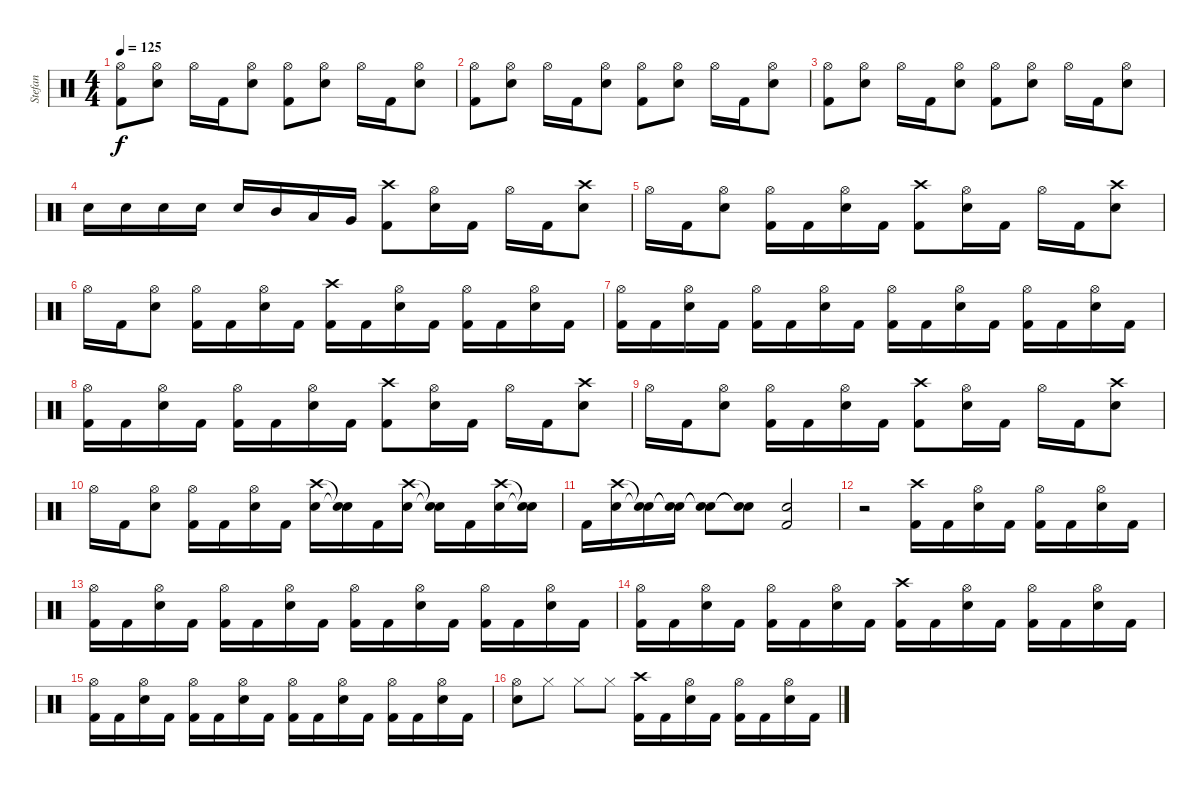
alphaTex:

\track ("Stefan" "Stefan") {instrument percussion}
\staff {score}
\articulation defaults
\ts (4 4)
\tempo 125
\clef neutral
\ks c
("Hi-Hat (open)" "Kick (hit) 2").8{dy f} ("Hi-Hat (open)" "Electric Snare (hit)").8 "Hi-Hat (open)".16 "Kick (hit) 2".16 ("Hi-Hat (open)" "Electric Snare (hit)").8 ("Hi-Hat (open)" "Kick (hit) 2").8 ("Hi-Hat (open)" "Electric Snare (hit)").8 "Hi-Hat (open)".16 "Kick (hit) 2".16 ("Hi-Hat (open)" "Electric Snare (hit)").8 |
("Hi-Hat (open)" "Kick (hit) 2").8 ("Hi-Hat (open)" "Electric Snare (hit)").8 "Hi-Hat (open)".16 "Kick (hit) 2".16 ("Hi-Hat (open)" "Electric Snare (hit)").8 ("Hi-Hat (open)" "Kick (hit) 2").8 ("Hi-Hat (open)" "Electric Snare (hit)").8 "Hi-Hat (open)".16 "Kick (hit) 2".16 ("Hi-Hat (open)" "Electric Snare (hit)").8 |
("Hi-Hat (open)" "Kick (hit) 2").8 ("Hi-Hat (open)" "Electric Snare (hit)").8 "Hi-Hat (open)".16 "Kick (hit) 2".16 ("Hi-Hat (open)" "Electric Snare (hit)").8 ("Hi-Hat (open)" "Kick (hit) 2").8 ("Hi-Hat (open)" "Electric Snare (hit)").8 "Hi-Hat (open)".16 "Kick (hit) 2".16 ("Hi-Hat (open)" "Electric Snare (hit)").8 |
"Electric Snare (hit)".16 "Electric Snare (hit)".16 "Electric Snare (hit)".16 "Electric Snare (hit)".16 "Electric Snare (hit)".16 "Mid Tom (hit)".16 "Low Tom (hit)".16 "Very Low Tom (hit)".16 ("Crash high (hit)" "Kick (hit) 2").8 ("Hi-Hat (open)" "Electric Snare (hit)").16 "Kick (hit) 2".16 "Hi-Hat (open)".16 "Kick (hit) 2".16 ("Crash high (hit)" "Electric Snare (hit)").8 |
"Hi-Hat (open)".16 "Kick (hit) 2".16 ("Hi-Hat (open)" "Electric Snare (hit)").8 ("Hi-Hat (open)" "Kick (hit) 2").16 "Kick (hit) 2".16 ("Hi-Hat (open)" "Electric Snare (hit)").16 "Kick (hit) 2".16 ("Crash high (hit)" "Kick (hit) 2").8 ("Electric Snare (hit)" "Hi-Hat (open)").16 "Kick (hit) 2".16 "Hi-Hat (open)".16 "Kick (hit) 2".16 ("Crash high (hit)" "Electric Snare (hit)").8 |
"Hi-Hat (open)".16 "Kick (hit) 2".16 ("Hi-Hat (open)" "Electric Snare (hit)").8 ("Hi-Hat (open)" "Kick (hit) 2").16 "Kick (hit) 2".16 ("Hi-Hat (open)" "Electric Snare (hit)").16 "Kick (hit) 2".16 ("Crash high (hit)" "Kick (hit) 2").16 "Kick (hit) 2".16 ("Hi-Hat (open)" "Electric Snare (hit)").16 "Kick (hit) 2".16 ("Hi-Hat (open)" "Kick (hit) 2").16 "Kick (hit) 2".16 ("Hi-Hat (open)" "Electric Snare (hit)").16 "Kick (hit) 2".16 |
("Hi-Hat (open)" "Kick (hit) 2").16 "Kick (hit) 2".16 ("Hi-Hat (open)" "Electric Snare (hit)").16 "Kick (hit) 2".16 ("Hi-Hat (open)" "Kick (hit) 2").16 "Kick (hit) 2".16 ("Hi-Hat (open)" "Electric Snare (hit)").16 "Kick (hit) 2".16 ("Hi-Hat (open)" "Kick (hit) 2").16 "Kick (hit) 2".16 ("Hi-Hat (open)" "Electric Snare (hit)").16 "Kick (hit) 2".16 ("Hi-Hat (open)" "Kick (hit) 2").16 "Kick (hit) 2".16 ("Hi-Hat (open)" "Electric Snare (hit)").16 "Kick (hit) 2".16 |
("Hi-Hat (open)" "Kick (hit) 2").16 "Kick (hit) 2".16 ("Hi-Hat (open)" "Electric Snare (hit)").16 "Kick (hit) 2".16 ("Hi-Hat (open)" "Kick (hit) 2").16 "Kick (hit) 2".16 ("Hi-Hat (open)" "Electric Snare (hit)").16 "Kick (hit) 2".16 ("Crash high (hit)" "Kick (hit) 2").8 ("Hi-Hat (open)" "Electric Snare (hit)").16 "Kick (hit) 2".16 "Hi-Hat (open)".16 "Kick (hit) 2".16 ("Crash high (hit)" "Electric Snare (hit)").8 |
"Hi-Hat (open)".16 "Kick (hit) 2".16 ("Hi-Hat (open)" "Electric Snare (hit)").8 ("Hi-Hat (open)" "Kick (hit) 2").16 "Kick (hit) 2".16 ("Hi-Hat (open)" "Electric Snare (hit)").16 "Kick (hit) 2".16 ("Crash high (hit)" "Kick (hit) 2").8 ("Electric Snare (hit)" "Hi-Hat (open)").16 "Kick (hit) 2".16 "Hi-Hat (open)".16 "Kick (hit) 2".16 ("Crash high (hit)" "Electric Snare (hit)").8 |
"Hi-Hat (open)".16 "Kick (hit) 2".16 ("Hi-Hat (open)" "Electric Snare (hit)").8 ("Hi-Hat (open)" "Kick (hit) 2").16 "Kick (hit) 2".16 ("Hi-Hat (open)" "Electric Snare (hit)").16 "Kick (hit) 2".16 ("Crash high (hit)" "Electric Snare (hit)").16 ("Snare (hit)"{t} "Snare (hit)"{t}).16 "Kick (hit) 2".16 ("Crash high (hit)" "Electric Snare (hit)").16 ("Snare (hit)"{t} "Snare (hit)"{t}).16 "Kick (hit) 2".16 ("Crash high (hit)" "Electric Snare (hit)").16 ("Snare (hit)"{t} "Snare (hit)"{t}).16 |
"Kick (hit) 2".16 ("Crash high (hit)" "Electric Snare (hit)").16 ("Snare (hit)"{t} "Snare (hit)"{t}).16 ("Snare (hit)"{t} "Snare (hit)"{t}).16 ("Snare (hit)"{t} "Snare (hit)"{t}).8 ("Snare (hit)"{t} "Snare (hit)"{t}).8 ("Kick (hit) 2" "Electric Snare (hit)").2 |
r.2 ("Crash high (hit)" "Kick (hit) 2").16 "Kick (hit) 2".16 ("Hi-Hat (open)" "Electric Snare (hit)").16 "Kick (hit) 2".16 ("Hi-Hat (open)" "Kick (hit) 2").16 "Kick (hit) 2".16 ("Hi-Hat (open)" "Electric Snare (hit)").16 "Kick (hit) 2".16 |
("Hi-Hat (open)" "Kick (hit) 2").16 "Kick (hit) 2".16 ("Hi-Hat (open)" "Electric Snare (hit)").16 "Kick (hit) 2".16 ("Hi-Hat (open)" "Kick (hit) 2").16 "Kick (hit) 2".16 ("Hi-Hat (open)" "Electric Snare (hit)").16 "Kick (hit) 2".16 ("Hi-Hat (open)" "Kick (hit) 2").16 "Kick (hit) 2".16 ("Hi-Hat (open)" "Electric Snare (hit)").16 "Kick (hit) 2".16 ("Hi-Hat (open)" "Kick (hit) 2").16 "Kick (hit) 2".16 ("Hi-Hat (open)" "Electric Snare (hit)").16 "Kick (hit) 2".16 |
("Hi-Hat (open)" "Kick (hit) 2").16 "Kick (hit) 2".16 ("Hi-Hat (open)" "Electric Snare (hit)").16 "Kick (hit) 2".16 ("Hi-Hat (open)" "Kick (hit) 2").16 "Kick (hit) 2".16 ("Hi-Hat (open)" "Electric Snare (hit)").16 "Kick (hit) 2".16 ("Crash high (hit)" "Kick (hit) 2").16 "Kick (hit) 2".16 ("Hi-Hat (open)" "Electric Snare (hit)").16 "Kick (hit) 2".16 ("Hi-Hat (open)" "Kick (hit) 2").16 "Kick (hit) 2".16 ("Hi-Hat (open)" "Electric Snare (hit)").16 "Kick (hit) 2".16 |
("Hi-Hat (open)" "Kick (hit) 2").16 "Kick (hit) 2".16 ("Hi-Hat (open)" "Electric Snare (hit)").16 "Kick (hit) 2".16 ("Hi-Hat (open)" "Kick (hit) 2").16 "Kick (hit) 2".16 ("Hi-Hat (open)" "Electric Snare (hit)").16 "Kick (hit) 2".16 ("Hi-Hat (open)" "Kick (hit) 2").16 "Kick (hit) 2".16 ("Hi-Hat (open)" "Electric Snare (hit)").16 "Kick (hit) 2".16 ("Hi-Hat (open)" "Kick (hit) 2").16 "Kick (hit) 2".16 ("Hi-Hat (open)" "Electric Snare (hit)").16 "Kick (hit) 2".16 |
("Hi-Hat (open)" "Electric Snare (hit)").8 "Hi-Hat (closed)".8 "Hi-Hat (closed)".8 "Hi-Hat (closed)".8 ("Crash high (hit)" "Kick (hit) 2").16 "Kick (hit) 2".16 ("Hi-Hat (open)" "Electric Snare (hit)").16 "Kick (hit) 2".16 ("Hi-Hat (open)" "Kick (hit) 2").16 "Kick (hit) 2".16 ("Hi-Hat (open)" "Electric Snare (hit)").16 "Kick (hit) 2".16
